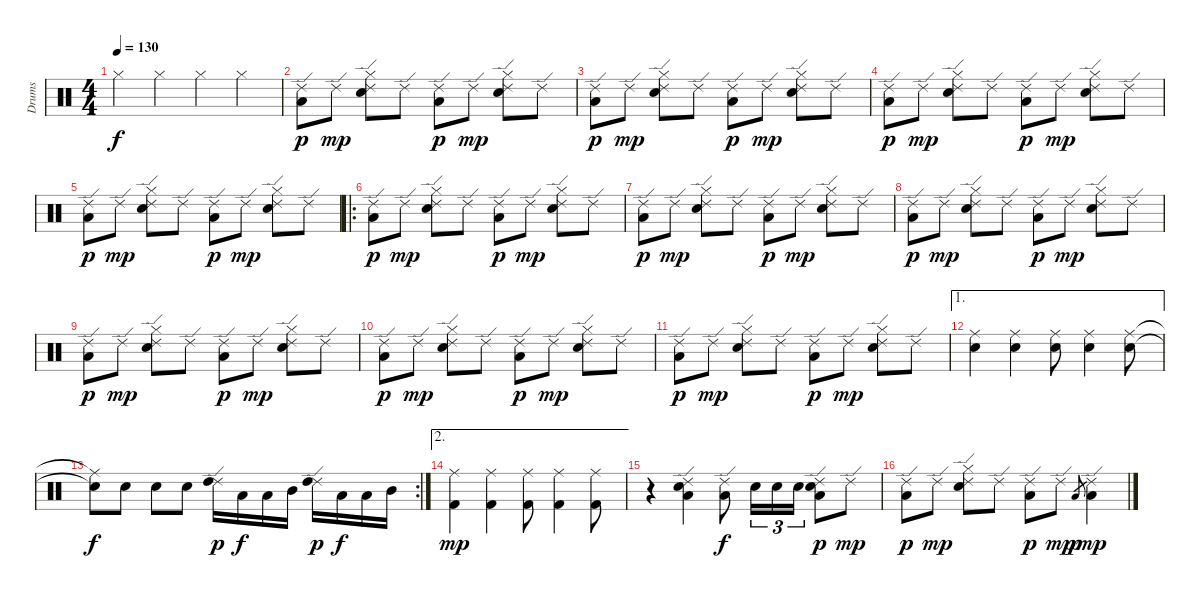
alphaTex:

\track ("Drums" "Drums") {instrument percussion}
\staff {score}
\articulation defaults
\ts (4 4)
\tempo 130
\clef neutral
\ks c "Hi-Hat (closed)".4{dy f} "Hi-Hat (closed)".4 "Hi-Hat (closed)".4 "Hi-Hat (closed)".4
|
("Ride (edge) 2" "Low Floor Tom (hit)").8{dy p} "Ride (edge) 2".8{dy mp} ("Ride (edge) 2" "Electric Snare (hit)" "Hi-Hat (closed)").8 "Ride (edge) 2".8 ("Ride (edge) 2" "Low Floor Tom (hit)").8{dy p} "Ride (edge) 2".8{dy mp} ("Ride (edge) 2" "Electric Snare (hit)" "Hi-Hat (closed)").8 "Ride (edge) 2".8 |
("Ride (edge) 2" "Low Floor Tom (hit)").8{dy p} "Ride (edge) 2".8{dy mp} ("Ride (edge) 2" "Electric Snare (hit)" "Hi-Hat (closed)").8 "Ride (edge) 2".8 ("Ride (edge) 2" "Low Floor Tom (hit)").8{dy p} "Ride (edge) 2".8{dy mp} ("Ride (edge) 2" "Electric Snare (hit)" "Hi-Hat (closed)").8 "Ride (edge) 2".8 |
("Ride (edge) 2" "Low Floor Tom (hit)").8{dy p} "Ride (edge) 2".8{dy mp} ("Ride (edge) 2" "Electric Snare (hit)" "Hi-Hat (closed)").8 "Ride (edge) 2".8 ("Ride (edge) 2" "Low Floor Tom (hit)").8{dy p} "Ride (edge) 2".8{dy mp} ("Ride (edge) 2" "Electric Snare (hit)" "Hi-Hat (closed)").8 "Ride (edge) 2".8 |
("Ride (edge) 2" "Low Floor Tom (hit)").8{dy p} "Ride (edge) 2".8{dy mp} ("Ride (edge) 2" "Electric Snare (hit)" "Hi-Hat (closed)").8 "Ride (edge) 2".8 ("Ride (edge) 2" "Low Floor Tom (hit)").8{dy p} "Ride (edge) 2".8{dy mp} ("Ride (edge) 2" "Electric Snare (hit)" "Hi-Hat (closed)").8 "Ride (edge) 2".8 |
\ro
("Ride (edge) 2" "Low Floor Tom (hit)").8{dy p} "Ride (edge) 2".8{dy mp} ("Ride (edge) 2" "Electric Snare (hit)" "Hi-Hat (closed)").8 "Ride (edge) 2".8 ("Ride (edge) 2" "Low Floor Tom (hit)").8{dy p} "Ride (edge) 2".8{dy mp} ("Ride (edge) 2" "Electric Snare (hit)" "Hi-Hat (closed)").8 "Ride (edge) 2".8 |
("Ride (edge) 2" "Low Floor Tom (hit)").8{dy p} "Ride (edge) 2".8{dy mp} ("Ride (edge) 2" "Electric Snare (hit)" "Hi-Hat (closed)").8 "Ride (edge) 2".8 ("Ride (edge) 2" "Low Floor Tom (hit)").8{dy p} "Ride (edge) 2".8{dy mp} ("Ride (edge) 2" "Electric Snare (hit)" "Hi-Hat (closed)").8 "Ride (edge) 2".8 |
("Ride (edge) 2" "Low Floor Tom (hit)").8{dy p} "Ride (edge) 2".8{dy mp} ("Ride (edge) 2" "Electric Snare (hit)" "Hi-Hat (closed)").8 "Ride (edge) 2".8 ("Ride (edge) 2" "Low Floor Tom (hit)").8{dy p} "Ride (edge) 2".8{dy mp} ("Ride (edge) 2" "Electric Snare (hit)" "Hi-Hat (closed)").8 "Ride (edge) 2".8 |
("Ride (edge) 2" "Low Floor Tom (hit)").8{dy p} "Ride (edge) 2".8{dy mp} ("Ride (edge) 2" "Electric Snare (hit)" "Hi-Hat (closed)").8 "Ride (edge) 2".8 ("Ride (edge) 2" "Low Floor Tom (hit)").8{dy p} "Ride (edge) 2".8{dy mp} ("Ride (edge) 2" "Electric Snare (hit)" "Hi-Hat (closed)").8 "Ride (edge) 2".8 |
("Ride (edge) 2" "Low Floor Tom (hit)").8{dy p} "Ride (edge) 2".8{dy mp} ("Ride (edge) 2" "Electric Snare (hit)" "Hi-Hat (closed)").8 "Ride (edge) 2".8 ("Ride (edge) 2" "Low Floor Tom (hit)").8{dy p} "Ride (edge) 2".8{dy mp} ("Ride (edge) 2" "Electric Snare (hit)" "Hi-Hat (closed)").8 "Ride (edge) 2".8 |
("Ride (edge) 2" "Low Floor Tom (hit)").8{dy p} "Ride (edge) 2".8{dy mp} ("Ride (edge) 2" "Electric Snare (hit)" "Hi-Hat (closed)").8 "Ride (edge) 2".8 ("Ride (edge) 2" "Low Floor Tom (hit)").8{dy p} "Ride (edge) 2".8{dy mp} ("Ride (edge) 2" "Electric Snare (hit)" "Hi-Hat (closed)").8 "Ride (edge) 2".8 |
\ae 1
("Ride (middle)" "Electric Snare (hit)").4 ("Ride (middle)" "Electric Snare (hit)").4 ("Ride (middle)" "Electric Snare (hit)").8 ("Ride (middle)" "Electric Snare (hit)").4 ("Ride (middle)" "Electric Snare (hit)").8 |
\rc 2
("Ride (middle)"{t} "Electric Snare (hit)"{t}).8{dy f} "Electric Snare (hit)".8 "Electric Snare (hit)".8 "Electric Snare (hit)".8 ("Ride (edge) 2" "High Tom (hit)").16{dy p} "Low Tom (hit)".16{dy f} "Low Tom (hit)".16 "Mid Tom (hit)".16 ("Ride (edge) 2" "High Tom (hit)").16{dy p} "Low Tom (hit)".16{dy f} "Low Tom (hit)".16 "Mid Tom (hit)".16 |
\ae 2
("Ride (middle)" "Kick (hit) 2").4{dy mp} ("Ride (middle)" "Kick (hit) 2").4 ("Ride (middle)" "Kick (hit) 2").8 ("Ride (middle)" "Kick (hit) 2").4 ("Ride (middle)" "Kick (hit) 2").8 |
r.4 ("Ride (edge) 2" "Electric Snare (hit)" "Low Floor Tom (hit)").4 ("Ride (edge) 2" "Low Floor Tom (hit)").8{dy f} "Snare (hit) 2".16{tu (3 2)} "Snare (hit) 2".16{tu (3 2)} "Snare (hit) 2".16{tu (3 2)} ("Ride (edge) 2" "Electric Snare (hit)" "Low Floor Tom (hit)").8{dy p} "Ride (edge) 2".8{dy mp} |
("Ride (edge) 2" "Low Floor Tom (hit)").8{dy p} "Ride (edge) 2".8{dy mp} ("Ride (edge) 2" "Electric Snare (hit)" "Hi-Hat (closed)").8 "Ride (edge) 2".8 ("Ride (edge) 2" "Low Floor Tom (hit)").8{dy p} "Ride (edge) 2".8{dy mp} "Low Floor Tom (hit)".8{gr dy p} ("Ride (edge) 2" "Low Tom (hit)").4{dy mp}
